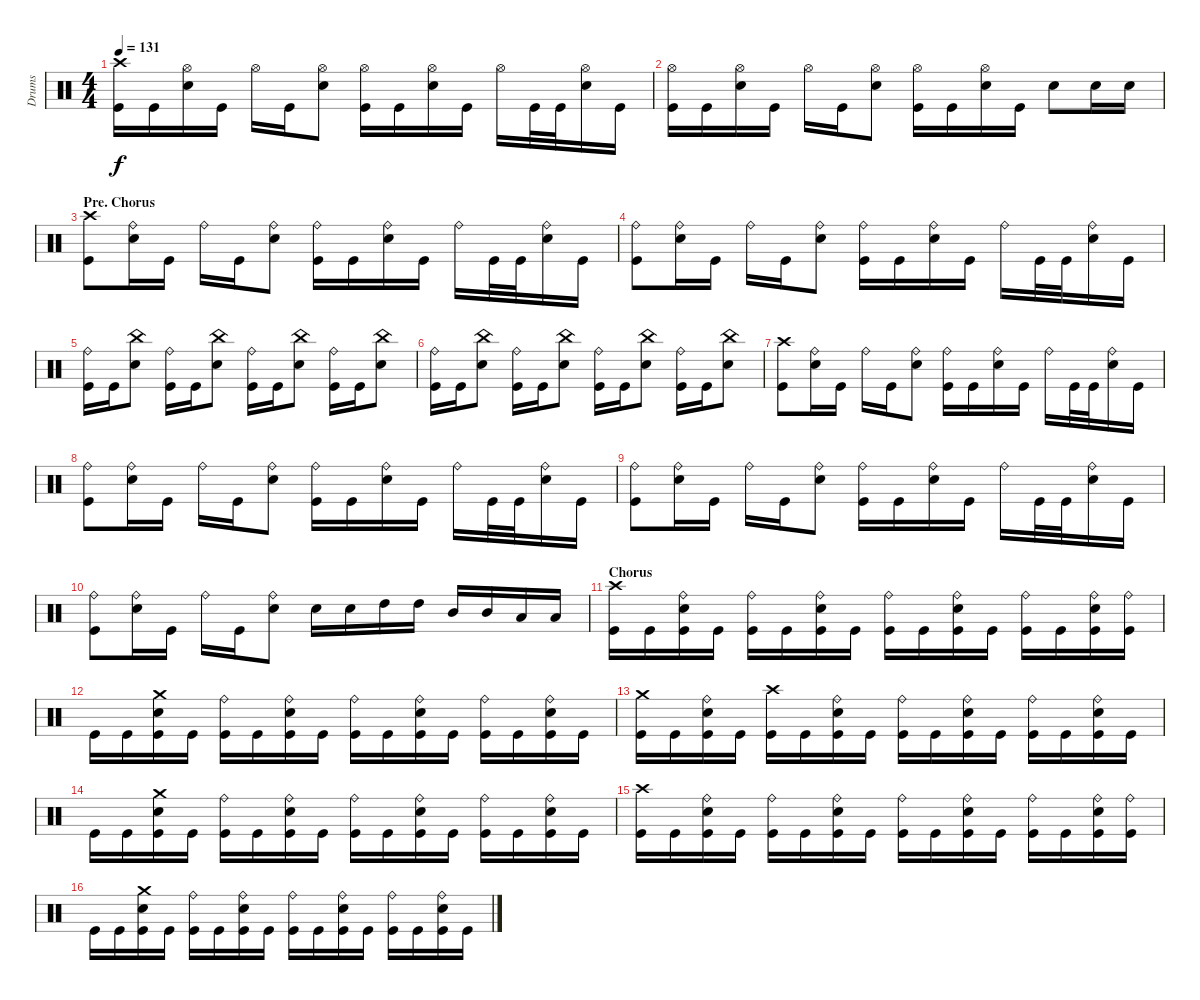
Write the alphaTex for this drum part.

\track ("Drums" "Drums") {instrument percussion}
\staff {score}
\articulation defaults
\ts (4 4)
\tempo 131
\clef neutral
\ks c
("Crash high (hit)" "Kick (hit)").16{dy f} "Kick (hit)".16 ("Hi-Hat (open)" "Snare (hit) 2").16 "Kick (hit)".16 "Hi-Hat (open)".16 "Kick (hit)".16 ("Hi-Hat (open)" "Snare (hit) 2").8 ("Hi-Hat (open)" "Kick (hit)").16 "Kick (hit)".16 ("Hi-Hat (open)" "Snare (hit) 2").16 "Kick (hit)".16 "Hi-Hat (open)".16 "Kick (hit)".32 "Kick (hit)".32 ("Hi-Hat (open)" "Snare (hit) 2").16 "Kick (hit)".16 |
("Hi-Hat (open)" "Kick (hit)").16 "Kick (hit)".16 ("Hi-Hat (open)" "Snare (hit) 2").16 "Kick (hit)".16 "Hi-Hat (open)".16 "Kick (hit)".16 ("Hi-Hat (open)" "Snare (hit) 2").8 ("Hi-Hat (open)" "Kick (hit)").16 "Kick (hit)".16 ("Hi-Hat (open)" "Snare (hit) 2").16 "Kick (hit)".16 "Snare (hit) 2".8 "Snare (hit) 2".16 "Snare (hit) 2".16 |
\section ("" "Pre. Chorus")
("Crash high (hit)" "Kick (hit)").8 ("Ride (bell)" "Snare (hit) 2").16 "Kick (hit)".16 "Ride (bell)".16 "Kick (hit)".16 ("Ride (bell)" "Snare (hit) 2").8 ("Ride (bell)" "Kick (hit)").16 "Kick (hit)".16 ("Ride (bell)" "Snare (hit) 2").16 "Kick (hit)".16 "Ride (bell)".16 "Kick (hit)".32 "Kick (hit)".32 ("Ride (bell)" "Snare (hit) 2").16 "Kick (hit)".16 |
("Ride (bell)" "Kick (hit)").8 ("Ride (bell)" "Snare (hit) 2").16 "Kick (hit)".16 "Ride (bell)".16 "Kick (hit)".16 ("Ride (bell)" "Snare (hit) 2").8 ("Ride (bell)" "Kick (hit)").16 "Kick (hit)".16 ("Ride (bell)" "Snare (hit) 2").16 "Kick (hit)".16 "Ride (bell)".16 "Kick (hit)".32 "Kick (hit)".32 ("Ride (bell)" "Snare (hit) 2").16 "Kick (hit)".16 |
("Ride (bell)" "Kick (hit)").16 "Kick (hit)".16 ("China (hit)" "Snare (hit) 2").8 ("Ride (bell)" "Kick (hit)").16 "Kick (hit)".16 ("China (hit)" "Snare (hit) 2").8 ("Ride (bell)" "Kick (hit)").16 "Kick (hit)".16 ("China (hit)" "Snare (hit) 2").8 ("Ride (bell)" "Kick (hit)").16 "Kick (hit)".16 ("China (hit)" "Snare (hit) 2").8 |
("Ride (bell)" "Kick (hit)").16 "Kick (hit)".16 ("China (hit)" "Snare (hit) 2").8 ("Ride (bell)" "Kick (hit)").16 "Kick (hit)".16 ("China (hit)" "Snare (hit) 2").8 ("Ride (bell)" "Kick (hit)").16 "Kick (hit)".16 ("China (hit)" "Snare (hit) 2").8 ("Ride (bell)" "Kick (hit)").16 "Kick (hit)".16 ("China (hit)" "Snare (hit) 2").8 |
("Crash high (hit)" "Kick (hit)").8 ("Ride (bell)" "Snare (hit) 2").16 "Kick (hit)".16 "Ride (bell)".16 "Kick (hit)".16 ("Ride (bell)" "Snare (hit) 2").8 ("Ride (bell)" "Kick (hit)").16 "Kick (hit)".16 ("Ride (bell)" "Snare (hit) 2").16 "Kick (hit)".16 "Ride (bell)".16 "Kick (hit)".32 "Kick (hit)".32 ("Ride (bell)" "Snare (hit) 2").16 "Kick (hit)".16 |
("Ride (bell)" "Kick (hit)").8 ("Ride (bell)" "Snare (hit) 2").16 "Kick (hit)".16 "Ride (bell)".16 "Kick (hit)".16 ("Ride (bell)" "Snare (hit) 2").8 ("Ride (bell)" "Kick (hit)").16 "Kick (hit)".16 ("Ride (bell)" "Snare (hit) 2").16 "Kick (hit)".16 "Ride (bell)".16 "Kick (hit)".32 "Kick (hit)".32 ("Ride (bell)" "Snare (hit) 2").16 "Kick (hit)".16 |
("Ride (bell)" "Kick (hit)").8 ("Ride (bell)" "Snare (hit) 2").16 "Kick (hit)".16 "Ride (bell)".16 "Kick (hit)".16 ("Ride (bell)" "Snare (hit) 2").8 ("Ride (bell)" "Kick (hit)").16 "Kick (hit)".16 ("Ride (bell)" "Snare (hit) 2").16 "Kick (hit)".16 "Ride (bell)".16 "Kick (hit)".32 "Kick (hit)".32 ("Ride (bell)" "Snare (hit) 2").16 "Kick (hit)".16 |
("Ride (bell)" "Kick (hit)").8 ("Ride (bell)" "Snare (hit) 2").16 "Kick (hit)".16 "Ride (bell)".16 "Kick (hit)".16 ("Ride (bell)" "Snare (hit) 2").8 "Snare (hit) 2".16 "Snare (hit) 2".16 "High Tom (hit)".16 "High Tom (hit)".16 "Mid Tom (hit)".16 "Mid Tom (hit)".16 "Low Tom (hit)".16 "Low Tom (hit)".16 |
\section ("" "Chorus")
("Crash high (hit)" "Kick (hit)").16 "Kick (hit)".16 ("Ride (bell)" "Snare (hit) 2" "Kick (hit)").16 "Kick (hit)".16 ("Ride (bell)" "Kick (hit)").16 "Kick (hit)".16 ("Ride (bell)" "Snare (hit) 2" "Kick (hit)").16 "Kick (hit)".16 ("Ride (bell)" "Kick (hit)").16 "Kick (hit)".16 ("Ride (bell)" "Snare (hit) 2" "Kick (hit)").16 "Kick (hit)".16 ("Ride (bell)" "Kick (hit)").16 "Kick (hit)".16 ("Ride (bell)" "Snare (hit) 2" "Kick (hit)").16 ("Ride (bell)" "Kick (hit)").16 |
"Kick (hit)".16 "Kick (hit)".16 ("Crash medium (hit)" "Snare (hit) 2" "Kick (hit)").16 "Kick (hit)".16 ("Ride (bell)" "Kick (hit)").16 "Kick (hit)".16 ("Ride (bell)" "Snare (hit) 2" "Kick (hit)").16 "Kick (hit)".16 ("Ride (bell)" "Kick (hit)").16 "Kick (hit)".16 ("Ride (bell)" "Snare (hit) 2" "Kick (hit)").16 "Kick (hit)".16 ("Ride (bell)" "Kick (hit)").16 "Kick (hit)".16 ("Ride (bell)" "Snare (hit) 2" "Kick (hit)").16 "Kick (hit)".16 |
("Crash medium (hit)" "Kick (hit)").16 "Kick (hit)".16 ("Ride (bell)" "Snare (hit) 2" "Kick (hit)").16 "Kick (hit)".16 ("Crash high (hit)" "Kick (hit)").16 "Kick (hit)".16 ("Ride (bell)" "Snare (hit) 2" "Kick (hit)").16 "Kick (hit)".16 ("Ride (bell)" "Kick (hit)").16 "Kick (hit)".16 ("Ride (bell)" "Snare (hit) 2" "Kick (hit)").16 "Kick (hit)".16 ("Ride (bell)" "Kick (hit)").16 "Kick (hit)".16 ("Ride (bell)" "Snare (hit) 2" "Kick (hit)").16 "Kick (hit)".16 |
"Kick (hit)".16 "Kick (hit)".16 ("Crash medium (hit)" "Snare (hit) 2" "Kick (hit)").16 "Kick (hit)".16 ("Ride (bell)" "Kick (hit)").16 "Kick (hit)".16 ("Ride (bell)" "Snare (hit) 2" "Kick (hit)").16 "Kick (hit)".16 ("Ride (bell)" "Kick (hit)").16 "Kick (hit)".16 ("Ride (bell)" "Snare (hit) 2" "Kick (hit)").16 "Kick (hit)".16 ("Ride (bell)" "Kick (hit)").16 "Kick (hit)".16 ("Ride (bell)" "Snare (hit) 2" "Kick (hit)").16 "Kick (hit)".16 |
("Crash high (hit)" "Kick (hit)").16 "Kick (hit)".16 ("Ride (bell)" "Snare (hit) 2" "Kick (hit)").16 "Kick (hit)".16 ("Ride (bell)" "Kick (hit)").16 "Kick (hit)".16 ("Ride (bell)" "Snare (hit) 2" "Kick (hit)").16 "Kick (hit)".16 ("Ride (bell)" "Kick (hit)").16 "Kick (hit)".16 ("Ride (bell)" "Snare (hit) 2" "Kick (hit)").16 "Kick (hit)".16 ("Ride (bell)" "Kick (hit)").16 "Kick (hit)".16 ("Ride (bell)" "Snare (hit) 2" "Kick (hit)").16 ("Ride (bell)" "Kick (hit)").16 |
"Kick (hit)".16 "Kick (hit)".16 ("Crash medium (hit)" "Snare (hit) 2" "Kick (hit)").16 "Kick (hit)".16 ("Ride (bell)" "Kick (hit)").16 "Kick (hit)".16 ("Ride (bell)" "Snare (hit) 2" "Kick (hit)").16 "Kick (hit)".16 ("Ride (bell)" "Kick (hit)").16 "Kick (hit)".16 ("Ride (bell)" "Snare (hit) 2" "Kick (hit)").16 "Kick (hit)".16 ("Ride (bell)" "Kick (hit)").16 "Kick (hit)".16 ("Ride (bell)" "Snare (hit) 2" "Kick (hit)").16 "Kick (hit)".16
